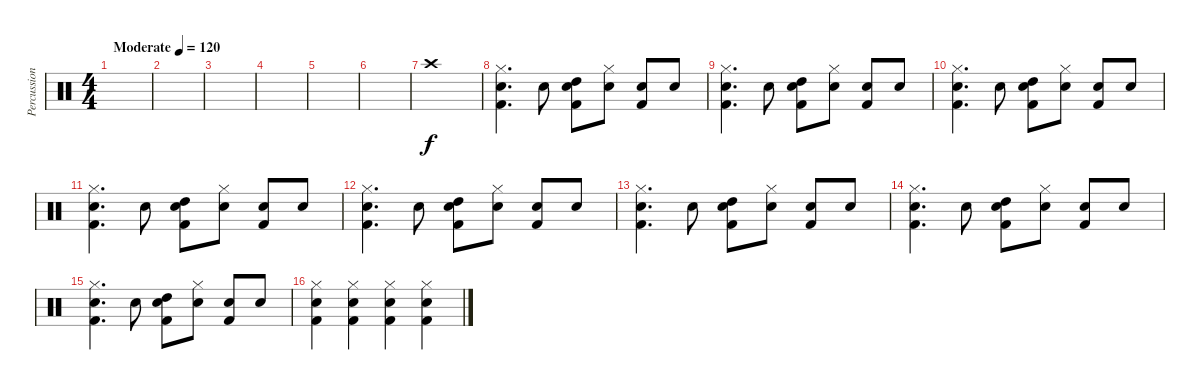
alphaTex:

\track ("Percussions" "Percussion") {instrument percussion}
\staff {score}
\articulation defaults
\ts (4 4)
\tempo (120 "Moderate")
\clef neutral
\ks c
|
|
|
|
|
|
"Crash high (hit)".1 |
("Kick (hit) 2" "Electric Snare (hit)" "Hi-Hat (closed)").4{d} "Electric Snare (hit)".8 ("Kick (hit) 2" "High Tom (hit)" "Electric Snare (hit)").8 ("Electric Snare (hit)" "Hi-Hat (closed)").8 ("Kick (hit) 2" "Electric Snare (hit)").8 "Electric Snare (hit)".8 |
("Kick (hit) 2" "Electric Snare (hit)" "Hi-Hat (closed)").4{d} "Electric Snare (hit)".8 ("Kick (hit) 2" "High Tom (hit)" "Electric Snare (hit)").8 ("Electric Snare (hit)" "Hi-Hat (closed)").8 ("Kick (hit) 2" "Electric Snare (hit)").8 "Electric Snare (hit)".8 |
("Kick (hit) 2" "Electric Snare (hit)" "Hi-Hat (closed)").4{d} "Electric Snare (hit)".8 ("Kick (hit) 2" "High Tom (hit)" "Electric Snare (hit)").8 ("Electric Snare (hit)" "Hi-Hat (closed)").8 ("Kick (hit) 2" "Electric Snare (hit)").8 "Electric Snare (hit)".8 |
("Kick (hit) 2" "Electric Snare (hit)" "Hi-Hat (closed)").4{d} "Electric Snare (hit)".8 ("Kick (hit) 2" "High Tom (hit)" "Electric Snare (hit)").8 ("Electric Snare (hit)" "Hi-Hat (closed)").8 ("Kick (hit) 2" "Electric Snare (hit)").8 "Electric Snare (hit)".8 |
("Kick (hit) 2" "Electric Snare (hit)" "Hi-Hat (closed)").4{d} "Electric Snare (hit)".8 ("Kick (hit) 2" "High Tom (hit)" "Electric Snare (hit)").8 ("Electric Snare (hit)" "Hi-Hat (closed)").8 ("Kick (hit) 2" "Electric Snare (hit)").8 "Electric Snare (hit)".8 |
("Kick (hit) 2" "Electric Snare (hit)" "Hi-Hat (closed)").4{d} "Electric Snare (hit)".8 ("Kick (hit) 2" "High Tom (hit)" "Electric Snare (hit)").8 ("Electric Snare (hit)" "Hi-Hat (closed)").8 ("Kick (hit) 2" "Electric Snare (hit)").8 "Electric Snare (hit)".8 |
("Kick (hit) 2" "Electric Snare (hit)" "Hi-Hat (closed)").4{d} "Electric Snare (hit)".8 ("Kick (hit) 2" "High Tom (hit)" "Electric Snare (hit)").8 ("Electric Snare (hit)" "Hi-Hat (closed)").8 ("Kick (hit) 2" "Electric Snare (hit)").8 "Electric Snare (hit)".8 |
("Kick (hit) 2" "Electric Snare (hit)" "Hi-Hat (closed)").4{d} "Electric Snare (hit)".8 ("Kick (hit) 2" "High Tom (hit)" "Electric Snare (hit)").8 ("Electric Snare (hit)" "Hi-Hat (closed)").8 ("Kick (hit) 2" "Electric Snare (hit)").8 "Electric Snare (hit)".8 |
("Kick (hit) 2" "Electric Snare (hit)" "Hi-Hat (closed)").4 ("Kick (hit) 2" "Electric Snare (hit)" "Hi-Hat (closed)").4 ("Kick (hit) 2" "Electric Snare (hit)" "Hi-Hat (closed)").4 ("Kick (hit) 2" "Electric Snare (hit)" "Hi-Hat (closed)").4
